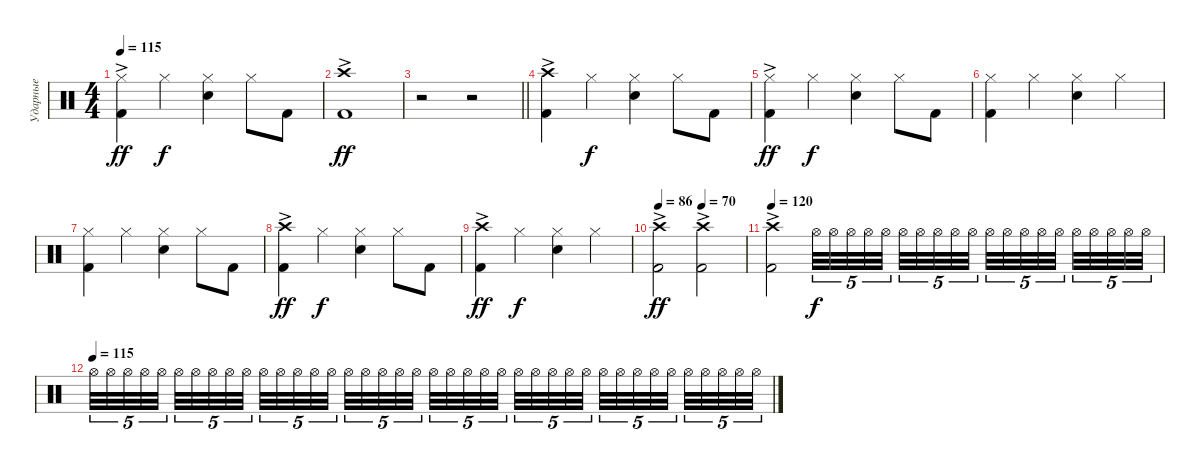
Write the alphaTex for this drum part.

\track ("Ударные" "Ударные") {instrument percussion}
\staff {score}
\articulation defaults
\ts (4 4)
\tempo 115
\clef neutral
\ks c
("Kick (hit) 2" "Hi-Hat (closed)"{ac}).4{dy ff} "Hi-Hat (closed)".4{dy f} ("Snare (hit) 2" "Hi-Hat (closed)").4 "Hi-Hat (closed)".8 "Kick (hit) 2".8 |
("Kick (hit) 2" "Crash high (hit)"{ac}).1{dy ff} |
\barLineRight lightlight
r.2{volume 13} r.2{volume 13} |
("Kick (hit) 2" "Crash high (hit)"{ac}).4 "Hi-Hat (closed)".4{dy f} ("Snare (hit) 2" "Hi-Hat (closed)").4 "Hi-Hat (closed)".8 "Kick (hit) 2".8 |
("Kick (hit) 2" "Hi-Hat (closed)"{ac}).4{dy ff} "Hi-Hat (closed)".4{dy f} ("Snare (hit) 2" "Hi-Hat (closed)").4 "Hi-Hat (closed)".8 "Kick (hit) 2".8 |
("Kick (hit) 2" "Hi-Hat (closed)").4 "Hi-Hat (closed)".4 ("Snare (hit) 2" "Hi-Hat (closed)").4 "Hi-Hat (closed)".4 |
("Kick (hit) 2" "Hi-Hat (closed)").4 "Hi-Hat (closed)".4 ("Snare (hit) 2" "Hi-Hat (closed)").4 "Hi-Hat (closed)".8 "Kick (hit) 2".8 |
("Kick (hit) 2" "Crash high (hit)"{ac}).4{dy ff} "Hi-Hat (closed)".4{dy f} ("Snare (hit) 2" "Hi-Hat (closed)").4 "Hi-Hat (closed)".8 "Kick (hit) 2".8 |
("Kick (hit) 2" "Crash high (hit)"{ac}).4{dy ff} "Hi-Hat (closed)".4{dy f} ("Snare (hit) 2" "Hi-Hat (closed)").4 "Hi-Hat (closed)".4 |
\tempo 86
\tempo (70 0.5)
("Kick (hit) 2" "Crash high (hit)"{ac}).2{dy ff} ("Kick (hit) 2" "Crash high (hit)"{ac}).2 |
\tempo 120
("Kick (hit) 2" "Crash high (hit)"{ac}).2 "Hi-Hat (open)".32{tu (5 4) dy f} "Hi-Hat (open)".32{tu (5 4)} "Hi-Hat (open)".32{tu (5 4)} "Hi-Hat (open)".32{tu (5 4)} "Hi-Hat (open)".32{tu (5 4) beam splitsecondary} "Hi-Hat (open)".32{tu (5 4)} "Hi-Hat (open)".32{tu (5 4)} "Hi-Hat (open)".32{tu (5 4)} "Hi-Hat (open)".32{tu (5 4)} "Hi-Hat (open)".32{tu (5 4)} "Hi-Hat (open)".32{tu (5 4)} "Hi-Hat (open)".32{tu (5 4)} "Hi-Hat (open)".32{tu (5 4)} "Hi-Hat (open)".32{tu (5 4)} "Hi-Hat (open)".32{tu (5 4) beam splitsecondary} "Hi-Hat (open)".32{tu (5 4)} "Hi-Hat (open)".32{tu (5 4)} "Hi-Hat (open)".32{tu (5 4)} "Hi-Hat (open)".32{tu (5 4)} "Hi-Hat (open)".32{tu (5 4)} |
\tempo (115)
"Hi-Hat (open)".32{tu (5 4)} "Hi-Hat (open)".32{tu (5 4)} "Hi-Hat (open)".32{tu (5 4)} "Hi-Hat (open)".32{tu (5 4)} "Hi-Hat (open)".32{tu (5 4) beam splitsecondary} "Hi-Hat (open)".32{tu (5 4)} "Hi-Hat (open)".32{tu (5 4)} "Hi-Hat (open)".32{tu (5 4)} "Hi-Hat (open)".32{tu (5 4)} "Hi-Hat (open)".32{tu (5 4)} "Hi-Hat (open)".32{tu (5 4)} "Hi-Hat (open)".32{tu (5 4)} "Hi-Hat (open)".32{tu (5 4)} "Hi-Hat (open)".32{tu (5 4)} "Hi-Hat (open)".32{tu (5 4) beam splitsecondary} "Hi-Hat (open)".32{tu (5 4)} "Hi-Hat (open)".32{tu (5 4)} "Hi-Hat (open)".32{tu (5 4)} "Hi-Hat (open)".32{tu (5 4)} "Hi-Hat (open)".32{tu (5 4)} "Hi-Hat (open)".32{tu (5 4)} "Hi-Hat (open)".32{tu (5 4)} "Hi-Hat (open)".32{tu (5 4)} "Hi-Hat (open)".32{tu (5 4)} "Hi-Hat (open)".32{tu (5 4) beam splitsecondary} "Hi-Hat (open)".32{tu (5 4)} "Hi-Hat (open)".32{tu (5 4)} "Hi-Hat (open)".32{tu (5 4)} "Hi-Hat (open)".32{tu (5 4)} "Hi-Hat (open)".32{tu (5 4)} "Hi-Hat (open)".32{tu (5 4)} "Hi-Hat (open)".32{tu (5 4)} "Hi-Hat (open)".32{tu (5 4)} "Hi-Hat (open)".32{tu (5 4)} "Hi-Hat (open)".32{tu (5 4) beam splitsecondary} "Hi-Hat (open)".32{tu (5 4)} "Hi-Hat (open)".32{tu (5 4)} "Hi-Hat (open)".32{tu (5 4)} "Hi-Hat (open)".32{tu (5 4)} "Hi-Hat (open)".32{tu (5 4)}
